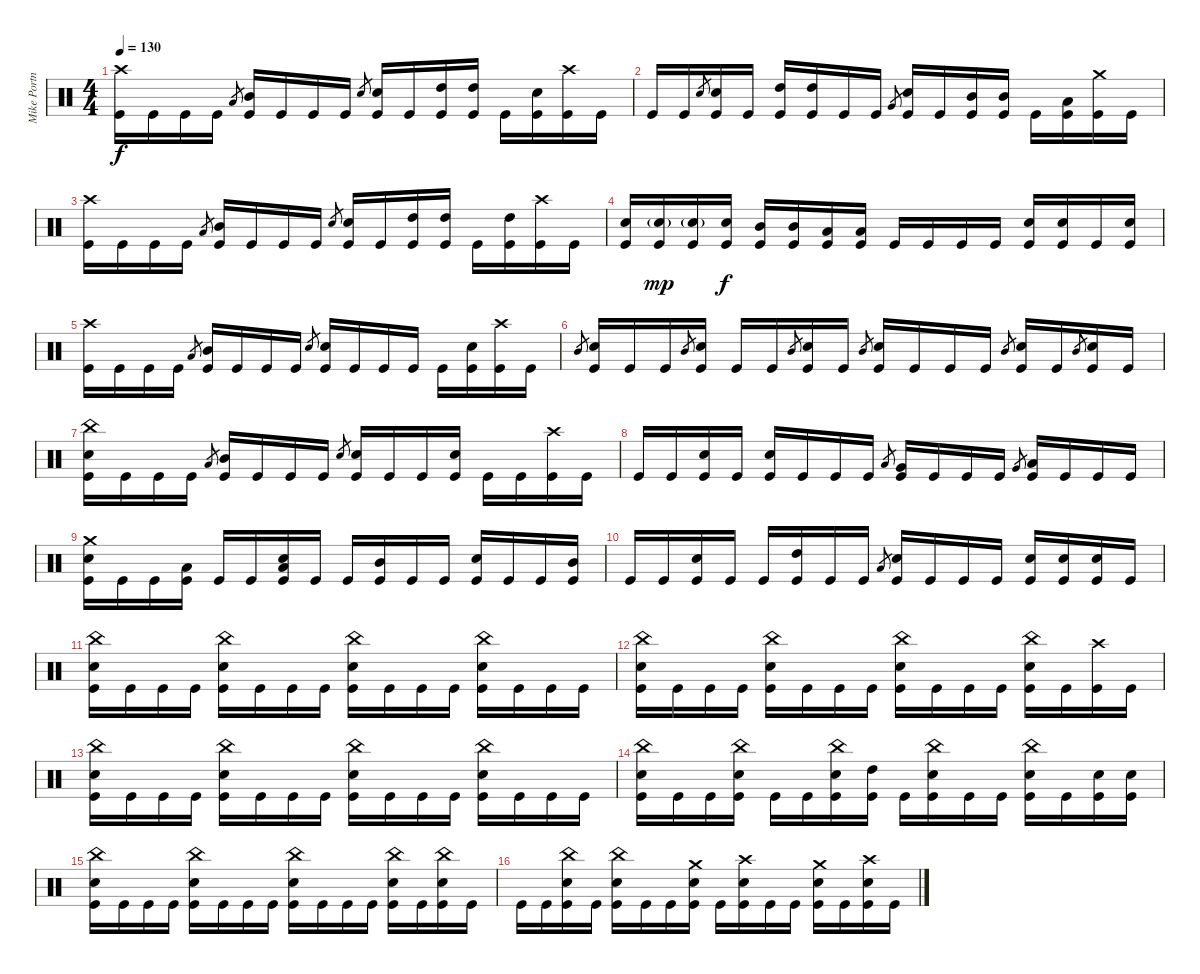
\track ("Mike Portnoy" "Mike Portn") {instrument percussion}
\staff {score}
\articulation defaults
\ts (4 4)
\tempo 130
\clef neutral
\ks c
("Crash high (hit)" "Kick (hit)").16{dy f} "Kick (hit)".16 "Kick (hit)".16 "Kick (hit)".16 "Low Tom (hit)".8{gr} ("Mid Tom (hit)" "Kick (hit)").16 "Kick (hit)".16 "Kick (hit)".16 "Kick (hit)".16 "Electric Snare (hit)".8{gr} ("Electric Snare (hit)" "Kick (hit)").16 "Kick (hit)".16 ("High Tom (hit)" "Kick (hit)").16 ("High Tom (hit)" "Kick (hit)").16 "Kick (hit)".16 ("Electric Snare (hit)" "Kick (hit)").16 ("Crash high (hit)" "Kick (hit)").16 "Kick (hit)".16 |
"Kick (hit)".16 "Kick (hit)".16 "Electric Snare (hit)".8{gr} ("Electric Snare (hit)" "Kick (hit)").16 "Kick (hit)".16 ("High Tom (hit)" "Kick (hit)").16 ("High Tom (hit)" "Kick (hit)").16 "Kick (hit)".16 "Kick (hit)".16 "Very Low Tom (hit)".8{gr} ("Electric Snare (hit)" "Kick (hit)").16 "Kick (hit)".16 ("Mid Tom (hit)" "Kick (hit)").16 ("Mid Tom (hit)" "Kick (hit)").16 "Kick (hit)".16 ("Low Tom (hit)" "Kick (hit)").16 ("Crash medium (hit)" "Kick (hit)").16 "Kick (hit)".16 |
("Crash high (hit)" "Kick (hit)").16 "Kick (hit)".16 "Kick (hit)".16 "Kick (hit)".16 "Low Tom (hit)".8{gr} ("Mid Tom (hit)" "Kick (hit)").16 "Kick (hit)".16 "Kick (hit)".16 "Kick (hit)".16 "Electric Snare (hit)".8{gr} ("Electric Snare (hit)" "Kick (hit)").16 "Kick (hit)".16 ("High Tom (hit)" "Kick (hit)").16 ("High Tom (hit)" "Kick (hit)").16 "Kick (hit)".16 ("High Tom (hit)" "Kick (hit)").16 ("Crash high (hit)" "Kick (hit)").16 "Kick (hit)".16 |
("Electric Snare (hit)" "Kick (hit)").16 ("Electric Snare (hit)"{g} "Kick (hit)").16{dy mp} ("Electric Snare (hit)"{g} "Kick (hit)").16 ("Electric Snare (hit)" "Kick (hit)").16{dy f} ("Mid Tom (hit)" "Kick (hit)").16 ("Mid Tom (hit)" "Kick (hit)").16 ("Low Tom (hit)" "Kick (hit)").16 ("Low Tom (hit)" "Kick (hit)").16 "Kick (hit)".16 "Kick (hit)".16 "Kick (hit)".16 "Kick (hit)".16 ("Electric Snare (hit)" "Kick (hit)").16 ("Electric Snare (hit)" "Kick (hit)").16 "Kick (hit)".16 ("Electric Snare (hit)" "Kick (hit)").16 |
("Crash high (hit)" "Kick (hit)").16 "Kick (hit)".16 "Kick (hit)".16 "Kick (hit)".16 "Low Tom (hit)".8{gr} ("Mid Tom (hit)" "Kick (hit)").16 "Kick (hit)".16 "Kick (hit)".16 "Kick (hit)".16 "Electric Snare (hit)".8{gr} ("Electric Snare (hit)" "Kick (hit)").16 "Kick (hit)".16 "Kick (hit)".16 "Kick (hit)".16 "Kick (hit)".16 ("Electric Snare (hit)" "Kick (hit)").16 ("Crash high (hit)" "Kick (hit)").16 "Kick (hit)".16 |
"Mid Tom (hit)".8{gr} ("Electric Snare (hit)" "Kick (hit)").16 "Kick (hit)".16 "Kick (hit)".16 "Mid Tom (hit)".8{gr} ("Electric Snare (hit)" "Kick (hit)").16 "Kick (hit)".16 "Kick (hit)".16 "Mid Tom (hit)".8{gr} ("Electric Snare (hit)" "Kick (hit)").16 "Kick (hit)".16 "Mid Tom (hit)".8{gr} ("Electric Snare (hit)" "Kick (hit)").16 "Kick (hit)".16 "Kick (hit)".16 "Kick (hit)".16 "Mid Tom (hit)".8{gr} ("Electric Snare (hit)" "Kick (hit)").16 "Kick (hit)".16 "Mid Tom (hit)".8{gr} ("Electric Snare (hit)" "Kick (hit)").16 "Kick (hit)".16 |
("China (hit)" "Electric Snare (hit)" "Kick (hit)").16 "Kick (hit)".16 "Kick (hit)".16 "Kick (hit)".16 "Low Tom (hit)".8{gr} ("Mid Tom (hit)" "Kick (hit)").16 "Kick (hit)".16 "Kick (hit)".16 "Kick (hit)".16 "Electric Snare (hit)".8{gr} ("Electric Snare (hit)" "Kick (hit)").16 "Kick (hit)".16 "Kick (hit)".16 ("Electric Snare (hit)" "Kick (hit)").16 "Kick (hit)".16 "Kick (hit)".16 ("Crash high (hit)" "Kick (hit)").16 "Kick (hit)".16 |
"Kick (hit)".16 "Kick (hit)".16 ("Electric Snare (hit)" "Kick (hit)").16 "Kick (hit)".16 ("Electric Snare (hit)" "Kick (hit)").16 "Kick (hit)".16 "Kick (hit)".16 "Kick (hit)".16 "Low Floor Tom (hit)".8{gr} ("Very Low Tom (hit)" "Kick (hit)").16 "Kick (hit)".16 "Kick (hit)".16 "Kick (hit)".16 "Very Low Tom (hit)".8{gr} ("Low Tom (hit)" "Kick (hit)").16 "Kick (hit)".16 "Kick (hit)".16 "Kick (hit)".16 |
("Crash medium (hit)" "Electric Snare (hit)" "Kick (hit)").16 "Kick (hit)".16 "Kick (hit)".16 ("Low Tom (hit)" "Kick (hit)").16 "Kick (hit)".16 "Kick (hit)".16 ("Low Tom (hit)" "Electric Snare (hit)" "Kick (hit)").16 "Kick (hit)".16 "Kick (hit)".16 ("Mid Tom (hit)" "Kick (hit)").16 "Kick (hit)".16 "Kick (hit)".16 ("Electric Snare (hit)" "Kick (hit)").16 "Kick (hit)".16 "Kick (hit)".16 ("Mid Tom (hit)" "Kick (hit)").16 |
"Kick (hit)".16 "Kick (hit)".16 ("Electric Snare (hit)" "Kick (hit)").16 "Kick (hit)".16 "Kick (hit)".16 ("High Tom (hit)" "Kick (hit)").16 "Kick (hit)".16 "Kick (hit)".16 "Low Tom (hit)".8{gr} ("Electric Snare (hit)" "Kick (hit)").16 "Kick (hit)".16 "Kick (hit)".16 "Kick (hit)".16 ("Electric Snare (hit)" "Kick (hit)").16 ("Electric Snare (hit)" "Kick (hit)").16 ("Electric Snare (hit)" "Kick (hit)").16 "Kick (hit)".16 |
("China (hit)" "Electric Snare (hit)" "Kick (hit)").16 "Kick (hit)".16 "Kick (hit)".16 "Kick (hit)".16 ("China (hit)" "Electric Snare (hit)" "Kick (hit)").16 "Kick (hit)".16 "Kick (hit)".16 "Kick (hit)".16 ("China (hit)" "Electric Snare (hit)" "Kick (hit)").16 "Kick (hit)".16 "Kick (hit)".16 "Kick (hit)".16 ("China (hit)" "Electric Snare (hit)" "Kick (hit)").16 "Kick (hit)".16 "Kick (hit)".16 "Kick (hit)".16 |
("China (hit)" "Electric Snare (hit)" "Kick (hit)").16 "Kick (hit)".16 "Kick (hit)".16 "Kick (hit)".16 ("China (hit)" "Electric Snare (hit)" "Kick (hit)").16 "Kick (hit)".16 "Kick (hit)".16 "Kick (hit)".16 ("China (hit)" "Electric Snare (hit)" "Kick (hit)").16 "Kick (hit)".16 "Kick (hit)".16 "Kick (hit)".16 ("China (hit)" "Electric Snare (hit)" "Kick (hit)").16 "Kick (hit)".16 ("Crash high (hit)" "Kick (hit)").16 "Kick (hit)".16 |
("China (hit)" "Electric Snare (hit)" "Kick (hit)").16 "Kick (hit)".16 "Kick (hit)".16 "Kick (hit)".16 ("China (hit)" "Electric Snare (hit)" "Kick (hit)").16 "Kick (hit)".16 "Kick (hit)".16 "Kick (hit)".16 ("China (hit)" "Electric Snare (hit)" "Kick (hit)").16 "Kick (hit)".16 "Kick (hit)".16 "Kick (hit)".16 ("China (hit)" "Electric Snare (hit)" "Kick (hit)").16 "Kick (hit)".16 "Kick (hit)".16 "Kick (hit)".16 |
("China (hit)" "Electric Snare (hit)" "Kick (hit)").16 "Kick (hit)".16 "Kick (hit)".16 ("China (hit)" "Electric Snare (hit)" "Kick (hit)").16 "Kick (hit)".16 "Kick (hit)".16 ("China (hit)" "Electric Snare (hit)" "Kick (hit)").16 ("High Tom (hit)" "Kick (hit)").16 "Kick (hit)".16 ("China (hit)" "Electric Snare (hit)" "Kick (hit)").16 "Kick (hit)".16 "Kick (hit)".16 ("China (hit)" "Electric Snare (hit)" "Kick (hit)").16 "Kick (hit)".16 ("Electric Snare (hit)" "Kick (hit)").16 ("Electric Snare (hit)" "Kick (hit)").16 |
("China (hit)" "Electric Snare (hit)" "Kick (hit)").16 "Kick (hit)".16 "Kick (hit)".16 "Kick (hit)".16 ("China (hit)" "Electric Snare (hit)" "Kick (hit)").16 "Kick (hit)".16 "Kick (hit)".16 "Kick (hit)".16 ("China (hit)" "Electric Snare (hit)" "Kick (hit)").16 "Kick (hit)".16 "Kick (hit)".16 "Kick (hit)".16 ("China (hit)" "Electric Snare (hit)" "Kick (hit)").16 "Kick (hit)".16 ("China (hit)" "Electric Snare (hit)" "Kick (hit)").16 "Kick (hit)".16 |
"Kick (hit)".16 "Kick (hit)".16 ("China (hit)" "Electric Snare (hit)" "Kick (hit)").16 "Kick (hit)".16 ("China (hit)" "Electric Snare (hit)" "Kick (hit)").16 "Kick (hit)".16 "Kick (hit)".16 ("Crash medium (hit)" "Electric Snare (hit)" "Kick (hit)").16 "Kick (hit)".16 ("Crash high (hit)" "Electric Snare (hit)" "Kick (hit)").16 "Kick (hit)".16 "Kick (hit)".16 ("Crash medium (hit)" "Electric Snare (hit)" "Kick (hit)").16 "Kick (hit)".16 ("Crash high (hit)" "Electric Snare (hit)" "Kick (hit)").16 "Kick (hit)".16
